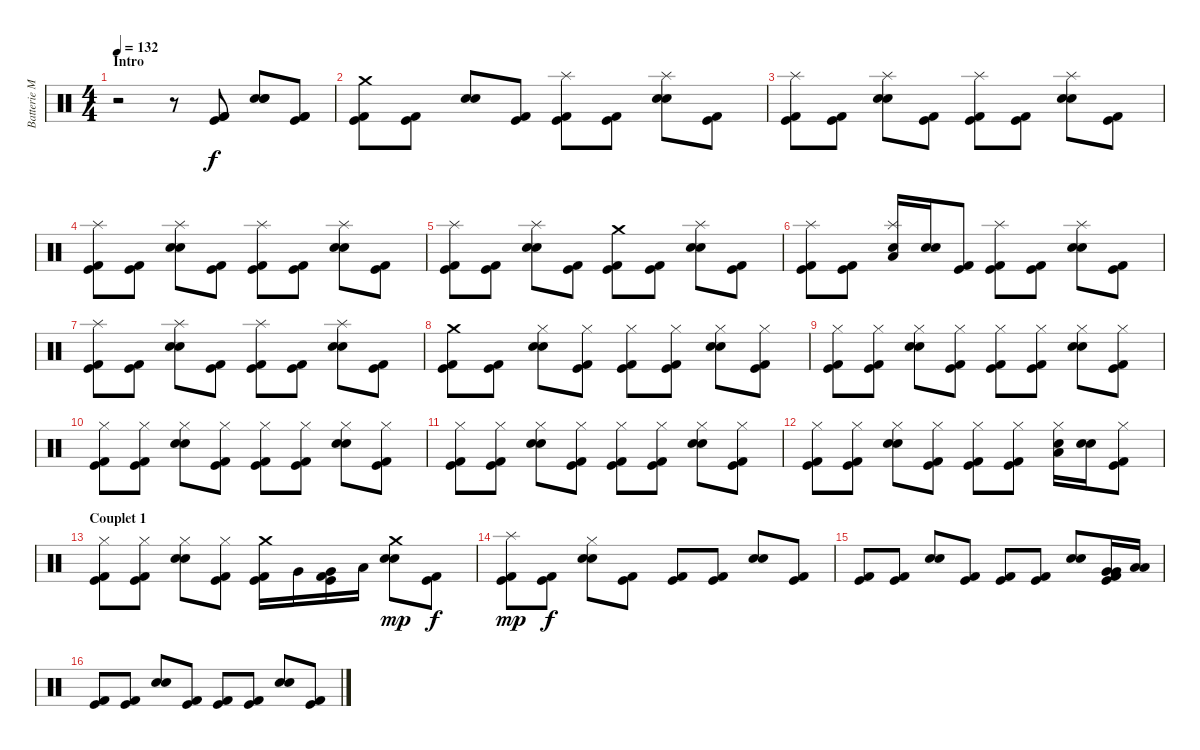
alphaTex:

\track ("Batterie Mat" "Batterie M") {instrument percussion}
\staff {score}
\articulation defaults
\ts (4 4)
\section ("" "Intro")
\tempo 132
\clef neutral
\ks c
r.2{dy f} r.8 ("Kick (hit) 2" "Kick (hit)" "Kick (hit) 2").8 ("Electric Snare (hit)" "Electric Snare (hit)" "Electric Snare (hit)").8 ("Kick (hit) 2" "Kick (hit)" "Kick (hit) 2").8 |
("Crash medium (hit)" "Kick (hit) 2" "Kick (hit)").8 ("Kick (hit) 2" "Kick (hit)").8 ("Electric Snare (hit)" "Electric Snare (hit)").8 ("Kick (hit) 2" "Kick (hit)").8 ("Splash (hit)" "Kick (hit) 2" "Kick (hit)").8 ("Kick (hit) 2" "Kick (hit)").8 ("Splash (hit)" "Electric Snare (hit)" "Electric Snare (hit)").8 ("Kick (hit) 2" "Kick (hit)").8 |
("Splash (hit)" "Kick (hit) 2" "Kick (hit)").8 ("Kick (hit) 2" "Kick (hit)").8 ("Splash (hit)" "Electric Snare (hit)" "Electric Snare (hit)").8 ("Kick (hit) 2" "Kick (hit)").8 ("Splash (hit)" "Kick (hit) 2" "Kick (hit)").8 ("Kick (hit) 2" "Kick (hit)").8 ("Splash (hit)" "Electric Snare (hit)" "Electric Snare (hit)").8 ("Kick (hit) 2" "Kick (hit)").8 |
("Splash (hit)" "Kick (hit) 2" "Kick (hit)").8 ("Kick (hit) 2" "Kick (hit)").8 ("Splash (hit)" "Electric Snare (hit)" "Electric Snare (hit)").8 ("Kick (hit) 2" "Kick (hit)").8 ("Splash (hit)" "Kick (hit) 2" "Kick (hit)").8 ("Kick (hit) 2" "Kick (hit)").8 ("Splash (hit)" "Electric Snare (hit)" "Electric Snare (hit)").8 ("Kick (hit) 2" "Kick (hit)").8 |
("Splash (hit)" "Kick (hit) 2" "Kick (hit)").8 ("Kick (hit) 2" "Kick (hit)").8 ("Splash (hit)" "Electric Snare (hit)" "Electric Snare (hit)").8 ("Kick (hit) 2" "Kick (hit)").8 ("Crash medium (hit)" "Kick (hit) 2" "Kick (hit)").8 ("Kick (hit) 2" "Kick (hit)").8 ("Splash (hit)" "Electric Snare (hit)" "Electric Snare (hit)").8 ("Kick (hit) 2" "Kick (hit)").8 |
("Splash (hit)" "Kick (hit) 2" "Kick (hit)").8 ("Kick (hit) 2" "Kick (hit)").8 ("Splash (hit)" "Electric Snare (hit)" "Low Floor Tom (hit)").16 ("Electric Snare (hit)" "Electric Snare (hit)").16 ("Kick (hit) 2" "Kick (hit)").8 ("Splash (hit)" "Kick (hit) 2" "Kick (hit)").8 ("Kick (hit) 2" "Kick (hit)").8 ("Splash (hit)" "Electric Snare (hit)" "Electric Snare (hit)").8 ("Kick (hit) 2" "Kick (hit)").8 |
("Splash (hit)" "Kick (hit) 2" "Kick (hit)").8 ("Kick (hit) 2" "Kick (hit)").8 ("Splash (hit)" "Electric Snare (hit)" "Electric Snare (hit)").8 ("Kick (hit) 2" "Kick (hit)").8 ("Splash (hit)" "Kick (hit) 2" "Kick (hit)").8 ("Kick (hit) 2" "Kick (hit)").8 ("Splash (hit)" "Electric Snare (hit)" "Electric Snare (hit)").8 ("Kick (hit) 2" "Kick (hit)").8 |
("Crash medium (hit)" "Kick (hit) 2" "Kick (hit)").8 ("Kick (hit) 2" "Kick (hit)").8 ("Hi-Hat (closed)" "Electric Snare (hit)" "Electric Snare (hit)").8 ("Hi-Hat (closed)" "Kick (hit) 2" "Kick (hit)").8 ("Hi-Hat (closed)" "Kick (hit) 2" "Kick (hit)").8 ("Hi-Hat (closed)" "Kick (hit) 2" "Kick (hit)").8 ("Hi-Hat (closed)" "Electric Snare (hit)" "Electric Snare (hit)").8 ("Hi-Hat (closed)" "Kick (hit) 2" "Kick (hit)").8 |
("Hi-Hat (closed)" "Kick (hit) 2" "Kick (hit)").8 ("Hi-Hat (closed)" "Kick (hit) 2" "Kick (hit)").8 ("Hi-Hat (closed)" "Electric Snare (hit)" "Electric Snare (hit)").8 ("Hi-Hat (closed)" "Kick (hit) 2" "Kick (hit)").8 ("Hi-Hat (closed)" "Kick (hit) 2" "Kick (hit)").8 ("Hi-Hat (closed)" "Kick (hit) 2" "Kick (hit)").8 ("Hi-Hat (closed)" "Electric Snare (hit)" "Electric Snare (hit)").8 ("Hi-Hat (closed)" "Kick (hit) 2" "Kick (hit)").8 |
("Hi-Hat (closed)" "Kick (hit) 2" "Kick (hit)").8 ("Hi-Hat (closed)" "Kick (hit) 2" "Kick (hit)").8 ("Hi-Hat (closed)" "Electric Snare (hit)" "Electric Snare (hit)").8 ("Hi-Hat (closed)" "Kick (hit) 2" "Kick (hit)").8 ("Hi-Hat (closed)" "Kick (hit) 2" "Kick (hit)").8 ("Hi-Hat (closed)" "Kick (hit) 2" "Kick (hit)").8 ("Hi-Hat (closed)" "Electric Snare (hit)" "Electric Snare (hit)").8 ("Hi-Hat (closed)" "Kick (hit) 2" "Kick (hit)").8 |
("Hi-Hat (closed)" "Kick (hit) 2" "Kick (hit)").8 ("Hi-Hat (closed)" "Kick (hit) 2" "Kick (hit)").8 ("Hi-Hat (closed)" "Electric Snare (hit)" "Electric Snare (hit)").8 ("Hi-Hat (closed)" "Kick (hit) 2" "Kick (hit)").8 ("Hi-Hat (closed)" "Kick (hit) 2" "Kick (hit)").8 ("Hi-Hat (closed)" "Kick (hit) 2" "Kick (hit)").8 ("Hi-Hat (closed)" "Electric Snare (hit)" "Electric Snare (hit)").8 ("Hi-Hat (closed)" "Kick (hit) 2" "Kick (hit)").8 |
("Hi-Hat (closed)" "Kick (hit) 2" "Kick (hit)").8 ("Hi-Hat (closed)" "Kick (hit) 2" "Kick (hit)").8 ("Hi-Hat (closed)" "Electric Snare (hit)" "Electric Snare (hit)").8 ("Hi-Hat (closed)" "Kick (hit) 2" "Kick (hit)").8 ("Hi-Hat (closed)" "Kick (hit) 2" "Kick (hit)").8 ("Hi-Hat (closed)" "Kick (hit) 2" "Kick (hit)").8 ("Hi-Hat (closed)" "Low Floor Tom (hit)" "Electric Snare (hit)").16 ("Electric Snare (hit)" "Electric Snare (hit)").16 ("Hi-Hat (closed)" "Kick (hit) 2" "Kick (hit)").8 |
\section ("" "Couplet 1")
("Hi-Hat (closed)" "Kick (hit) 2" "Kick (hit)").8 ("Hi-Hat (closed)" "Kick (hit) 2" "Kick (hit)").8 ("Hi-Hat (closed)" "Electric Snare (hit)" "Electric Snare (hit)").8 ("Hi-Hat (closed)" "Kick (hit) 2" "Kick (hit)").8 ("Crash medium (hit)" "Kick (hit) 2" "Kick (hit)").16 "Very Low Tom (hit)".16 ("Very Low Tom (hit)" "Kick (hit) 2" "Kick (hit)").16 "Low Floor Tom (hit)".16 ("Crash medium (hit)" "Electric Snare (hit)" "Electric Snare (hit)").8{dy mp} ("Kick (hit) 2" "Kick (hit)").8{dy f} |
("Splash (hit)" "Kick (hit) 2" "Kick (hit)").8{dy mp} ("Kick (hit) 2" "Kick (hit)").8{dy f} ("Hi-Hat (closed)" "Electric Snare (hit)" "Electric Snare (hit)").8 ("Kick (hit) 2" "Kick (hit)").8 ("Kick (hit) 2" "Kick (hit)").8 ("Kick (hit) 2" "Kick (hit)").8 ("Electric Snare (hit)" "Electric Snare (hit)").8 ("Kick (hit) 2" "Kick (hit)").8 |
("Kick (hit) 2" "Kick (hit)").8 ("Kick (hit) 2" "Kick (hit)").8 ("Electric Snare (hit)" "Electric Snare (hit)").8 ("Kick (hit) 2" "Kick (hit)").8 ("Kick (hit) 2" "Kick (hit)").8 ("Kick (hit) 2" "Kick (hit)").8 ("Electric Snare (hit)" "Electric Snare (hit)").8 ("Very Low Tom (hit)" "Very Low Tom (hit)" "Kick (hit) 2" "Kick (hit)").16 ("Low Floor Tom (hit)" "Low Floor Tom (hit)").16 |
("Kick (hit) 2" "Kick (hit)").8 ("Kick (hit) 2" "Kick (hit)").8 ("Electric Snare (hit)" "Electric Snare (hit)").8 ("Kick (hit) 2" "Kick (hit)").8 ("Kick (hit) 2" "Kick (hit)").8 ("Kick (hit) 2" "Kick (hit)").8 ("Electric Snare (hit)" "Electric Snare (hit)").8 ("Kick (hit) 2" "Kick (hit)").8
